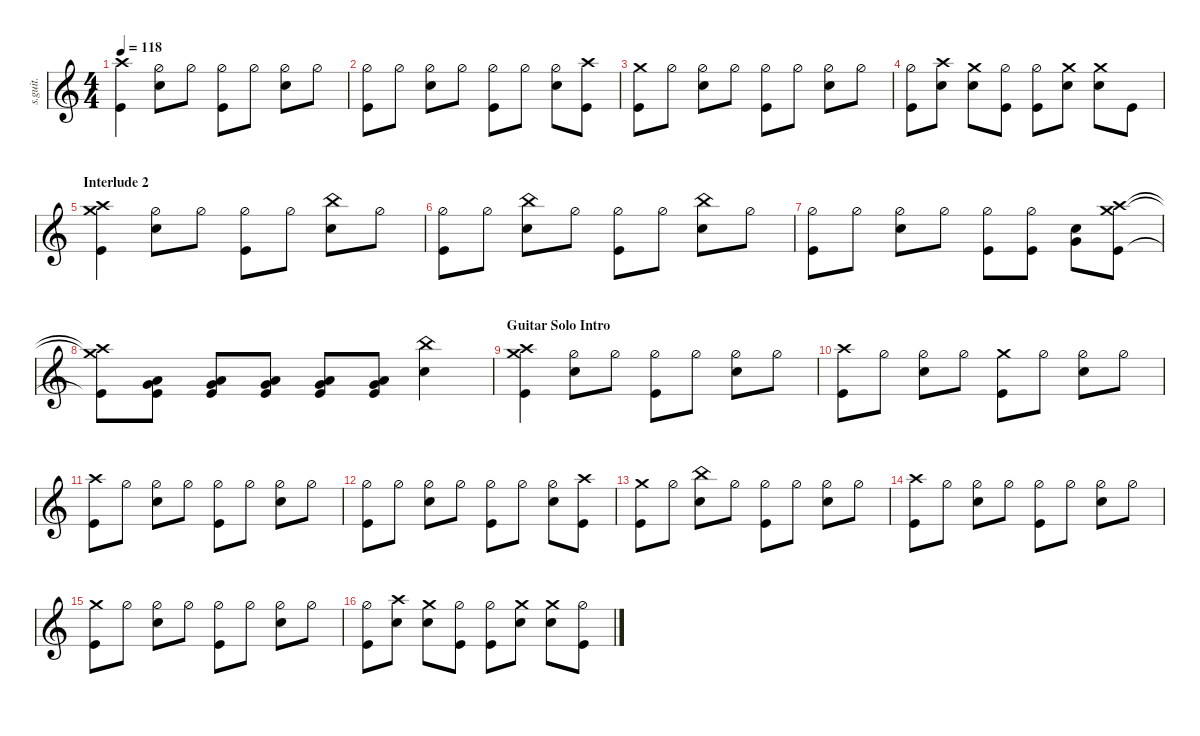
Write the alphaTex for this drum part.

\defaultSystemsLayout 4
\hideDynamics
\bracketExtendMode nobrackets
\track ("Drums [Arin Ilejay]" "s.guit.") {instrument percussion}
\staff {score}
\articulation defaults
\ts (4 4)
\tempo 118
\clef g2
\ks c
("Crash high (hit)" "Kick (hit)").4{lyrics (0 "") lyrics (1 "") lyrics (2 "") lyrics (3 "") lyrics (4 "") dy mp} ("Hi-Hat (half)" "Snare (hit) 2").8{lyrics (0 "") lyrics (1 "") lyrics (2 "") lyrics (3 "") lyrics (4 "")} "Hi-Hat (half)".8{lyrics (0 "") lyrics (1 "") lyrics (2 "") lyrics (3 "") lyrics (4 "")} ("Hi-Hat (half)" "Kick (hit)").8{lyrics (0 "") lyrics (1 "") lyrics (2 "") lyrics (3 "") lyrics (4 "")} "Hi-Hat (half)".8{lyrics (0 "") lyrics (1 "") lyrics (2 "") lyrics (3 "") lyrics (4 "")} ("Hi-Hat (half)" "Snare (hit) 2").8{lyrics (0 "") lyrics (1 "") lyrics (2 "") lyrics (3 "") lyrics (4 "")} "Hi-Hat (half)".8{lyrics (0 "") lyrics (1 "") lyrics (2 "") lyrics (3 "") lyrics (4 "")} |
("Hi-Hat (half)" "Kick (hit)").8{lyrics (0 "") lyrics (1 "") lyrics (2 "") lyrics (3 "") lyrics (4 "")} "Hi-Hat (half)".8{lyrics (0 "") lyrics (1 "") lyrics (2 "") lyrics (3 "") lyrics (4 "")} ("Hi-Hat (half)" "Snare (hit) 2").8{lyrics (0 "") lyrics (1 "") lyrics (2 "") lyrics (3 "") lyrics (4 "")} "Hi-Hat (half)".8{lyrics (0 "") lyrics (1 "") lyrics (2 "") lyrics (3 "") lyrics (4 "")} ("Hi-Hat (half)" "Kick (hit)").8{lyrics (0 "") lyrics (1 "") lyrics (2 "") lyrics (3 "") lyrics (4 "")} "Hi-Hat (half)".8{lyrics (0 "") lyrics (1 "") lyrics (2 "") lyrics (3 "") lyrics (4 "")} ("Hi-Hat (half)" "Snare (hit) 2").8{lyrics (0 "") lyrics (1 "") lyrics (2 "") lyrics (3 "") lyrics (4 "")} ("Crash high (hit)" "Kick (hit)").8{lyrics (0 "") lyrics (1 "") lyrics (2 "") lyrics (3 "") lyrics (4 "")} |
("Crash medium (hit)" "Kick (hit)").8{lyrics (0 "") lyrics (1 "") lyrics (2 "") lyrics (3 "") lyrics (4 "")} "Hi-Hat (half)".8{lyrics (0 "") lyrics (1 "") lyrics (2 "") lyrics (3 "") lyrics (4 "")} ("Hi-Hat (half)" "Snare (hit) 2").8{lyrics (0 "") lyrics (1 "") lyrics (2 "") lyrics (3 "") lyrics (4 "")} "Hi-Hat (half)".8{lyrics (0 "") lyrics (1 "") lyrics (2 "") lyrics (3 "") lyrics (4 "")} ("Hi-Hat (half)" "Kick (hit)").8{lyrics (0 "") lyrics (1 "") lyrics (2 "") lyrics (3 "") lyrics (4 "")} "Hi-Hat (half)".8{lyrics (0 "") lyrics (1 "") lyrics (2 "") lyrics (3 "") lyrics (4 "")} ("Hi-Hat (half)" "Snare (hit) 2").8{lyrics (0 "") lyrics (1 "") lyrics (2 "") lyrics (3 "") lyrics (4 "")} "Hi-Hat (half)".8{lyrics (0 "") lyrics (1 "") lyrics (2 "") lyrics (3 "") lyrics (4 "")} |
("Hi-Hat (half)" "Kick (hit)").8{lyrics (0 "") lyrics (1 "") lyrics (2 "") lyrics (3 "") lyrics (4 "")} ("Crash high (hit)" "Snare (hit) 2").8{lyrics (0 "") lyrics (1 "") lyrics (2 "") lyrics (3 "") lyrics (4 "")} ("Crash medium (hit)" "Snare (hit) 2").8{lyrics (0 "") lyrics (1 "") lyrics (2 "") lyrics (3 "") lyrics (4 "")} ("Hi-Hat (half)" "Kick (hit)").8{lyrics (0 "") lyrics (1 "") lyrics (2 "") lyrics (3 "") lyrics (4 "")} ("Hi-Hat (half)" "Kick (hit)").8{lyrics (0 "") lyrics (1 "") lyrics (2 "") lyrics (3 "") lyrics (4 "")} ("Crash medium (hit)" "Snare (hit) 2").8{lyrics (0 "") lyrics (1 "") lyrics (2 "") lyrics (3 "") lyrics (4 "")} ("Crash medium (hit)" "Snare (hit) 2").8{lyrics (0 "") lyrics (1 "") lyrics (2 "") lyrics (3 "") lyrics (4 "")} "Kick (hit)".8{lyrics (0 "") lyrics (1 "") lyrics (2 "") lyrics (3 "") lyrics (4 "")} |
\section ("" "Interlude 2")
("Crash high (hit)" "Crash medium (hit)" "Kick (hit)").4{lyrics (0 "") lyrics (1 "") lyrics (2 "") lyrics (3 "") lyrics (4 "")} ("Hi-Hat (half)" "Snare (hit) 2").8{lyrics (0 "") lyrics (1 "") lyrics (2 "") lyrics (3 "") lyrics (4 "")} "Hi-Hat (half)".8{lyrics (0 "") lyrics (1 "") lyrics (2 "") lyrics (3 "") lyrics (4 "")} ("Hi-Hat (half)" "Kick (hit)").8{lyrics (0 "") lyrics (1 "") lyrics (2 "") lyrics (3 "") lyrics (4 "")} "Hi-Hat (half)".8{lyrics (0 "") lyrics (1 "") lyrics (2 "") lyrics (3 "") lyrics (4 "")} ("China (hit)" "Snare (hit) 2").8{lyrics (0 "") lyrics (1 "") lyrics (2 "") lyrics (3 "") lyrics (4 "")} "Hi-Hat (half)".8{lyrics (0 "") lyrics (1 "") lyrics (2 "") lyrics (3 "") lyrics (4 "")} |
("Hi-Hat (half)" "Kick (hit)").8{lyrics (0 "") lyrics (1 "") lyrics (2 "") lyrics (3 "") lyrics (4 "")} "Hi-Hat (half)".8{lyrics (0 "") lyrics (1 "") lyrics (2 "") lyrics (3 "") lyrics (4 "")} ("China (hit)" "Snare (hit) 2").8{lyrics (0 "") lyrics (1 "") lyrics (2 "") lyrics (3 "") lyrics (4 "")} "Hi-Hat (half)".8{lyrics (0 "") lyrics (1 "") lyrics (2 "") lyrics (3 "") lyrics (4 "")} ("Hi-Hat (half)" "Kick (hit)").8{lyrics (0 "") lyrics (1 "") lyrics (2 "") lyrics (3 "") lyrics (4 "")} "Hi-Hat (half)".8{lyrics (0 "") lyrics (1 "") lyrics (2 "") lyrics (3 "") lyrics (4 "")} ("China (hit)" "Snare (hit) 2").8{lyrics (0 "") lyrics (1 "") lyrics (2 "") lyrics (3 "") lyrics (4 "")} "Hi-Hat (half)".8{lyrics (0 "") lyrics (1 "") lyrics (2 "") lyrics (3 "") lyrics (4 "")} |
("Hi-Hat (half)" "Kick (hit)").8{lyrics (0 "") lyrics (1 "") lyrics (2 "") lyrics (3 "") lyrics (4 "")} "Hi-Hat (half)".8{lyrics (0 "") lyrics (1 "") lyrics (2 "") lyrics (3 "") lyrics (4 "")} ("Hi-Hat (half)" "Snare (hit) 2").8{lyrics (0 "") lyrics (1 "") lyrics (2 "") lyrics (3 "") lyrics (4 "")} "Hi-Hat (half)".8{lyrics (0 "") lyrics (1 "") lyrics (2 "") lyrics (3 "") lyrics (4 "")} ("Hi-Hat (half)" "Kick (hit)").8{lyrics (0 "") lyrics (1 "") lyrics (2 "") lyrics (3 "") lyrics (4 "")} ("Hi-Hat (half)" "Kick (hit)").8{lyrics (0 "") lyrics (1 "") lyrics (2 "") lyrics (3 "") lyrics (4 "")} ("Snare (hit) 2" "Very Low Tom (hit)").8{lyrics (0 "") lyrics (1 "") lyrics (2 "") lyrics (3 "") lyrics (4 "")} ("Crash high (hit)" "Crash medium (hit)" "Kick (hit)").8{lyrics (0 "") lyrics (1 "") lyrics (2 "") lyrics (3 "") lyrics (4 "")} |
("Crash high (hit)"{t} "Crash medium (hit)"{t} "Kick (hit)"{t}).8{lyrics (0 "") lyrics (1 "") lyrics (2 "") lyrics (3 "") lyrics (4 "")} ("Low Tom (hit)" "Very Low Tom (hit)" "Kick (hit)").8{lyrics (0 "") lyrics (1 "") lyrics (2 "") lyrics (3 "") lyrics (4 "")} ("Low Tom (hit)" "Very Low Tom (hit)" "Kick (hit)").8{lyrics (0 "") lyrics (1 "") lyrics (2 "") lyrics (3 "") lyrics (4 "")} ("Low Tom (hit)" "Very Low Tom (hit)" "Kick (hit)").8{lyrics (0 "") lyrics (1 "") lyrics (2 "") lyrics (3 "") lyrics (4 "")} ("Low Tom (hit)" "Very Low Tom (hit)" "Kick (hit)").8{lyrics (0 "") lyrics (1 "") lyrics (2 "") lyrics (3 "") lyrics (4 "")} ("Low Tom (hit)" "Very Low Tom (hit)" "Kick (hit)").8{lyrics (0 "") lyrics (1 "") lyrics (2 "") lyrics (3 "") lyrics (4 "")} ("China (hit)" "Snare (hit) 2").4{lyrics (0 "") lyrics (1 "") lyrics (2 "") lyrics (3 "") lyrics (4 "")} |
\section ("" "Guitar Solo Intro")
("Crash high (hit)" "Crash medium (hit)" "Kick (hit)").4{lyrics (0 "") lyrics (1 "") lyrics (2 "") lyrics (3 "") lyrics (4 "")} ("Hi-Hat (half)" "Snare (hit) 2").8{lyrics (0 "") lyrics (1 "") lyrics (2 "") lyrics (3 "") lyrics (4 "")} "Hi-Hat (half)".8{lyrics (0 "") lyrics (1 "") lyrics (2 "") lyrics (3 "") lyrics (4 "")} ("Hi-Hat (half)" "Kick (hit)").8{lyrics (0 "") lyrics (1 "") lyrics (2 "") lyrics (3 "") lyrics (4 "")} "Hi-Hat (half)".8{lyrics (0 "") lyrics (1 "") lyrics (2 "") lyrics (3 "") lyrics (4 "")} ("Hi-Hat (half)" "Snare (hit) 2").8{lyrics (0 "") lyrics (1 "") lyrics (2 "") lyrics (3 "") lyrics (4 "")} "Hi-Hat (half)".8{lyrics (0 "") lyrics (1 "") lyrics (2 "") lyrics (3 "") lyrics (4 "")} |
("Crash high (hit)" "Kick (hit)").8{lyrics (0 "") lyrics (1 "") lyrics (2 "") lyrics (3 "") lyrics (4 "")} "Hi-Hat (half)".8{lyrics (0 "") lyrics (1 "") lyrics (2 "") lyrics (3 "") lyrics (4 "")} ("Hi-Hat (half)" "Snare (hit) 2").8{lyrics (0 "") lyrics (1 "") lyrics (2 "") lyrics (3 "") lyrics (4 "")} "Hi-Hat (half)".8{lyrics (0 "") lyrics (1 "") lyrics (2 "") lyrics (3 "") lyrics (4 "")} ("Crash medium (hit)" "Kick (hit)").8{lyrics (0 "") lyrics (1 "") lyrics (2 "") lyrics (3 "") lyrics (4 "")} "Hi-Hat (half)".8{lyrics (0 "") lyrics (1 "") lyrics (2 "") lyrics (3 "") lyrics (4 "")} ("Hi-Hat (half)" "Snare (hit) 2").8{lyrics (0 "") lyrics (1 "") lyrics (2 "") lyrics (3 "") lyrics (4 "")} "Hi-Hat (half)".8{lyrics (0 "") lyrics (1 "") lyrics (2 "") lyrics (3 "") lyrics (4 "")} |
("Crash high (hit)" "Kick (hit)").8{lyrics (0 "") lyrics (1 "") lyrics (2 "") lyrics (3 "") lyrics (4 "")} "Hi-Hat (half)".8{lyrics (0 "") lyrics (1 "") lyrics (2 "") lyrics (3 "") lyrics (4 "")} ("Hi-Hat (half)" "Snare (hit) 2").8{lyrics (0 "") lyrics (1 "") lyrics (2 "") lyrics (3 "") lyrics (4 "")} "Hi-Hat (half)".8{lyrics (0 "") lyrics (1 "") lyrics (2 "") lyrics (3 "") lyrics (4 "")} ("Hi-Hat (half)" "Kick (hit)").8{lyrics (0 "") lyrics (1 "") lyrics (2 "") lyrics (3 "") lyrics (4 "")} "Hi-Hat (half)".8{lyrics (0 "") lyrics (1 "") lyrics (2 "") lyrics (3 "") lyrics (4 "")} ("Hi-Hat (half)" "Snare (hit) 2").8{lyrics (0 "") lyrics (1 "") lyrics (2 "") lyrics (3 "") lyrics (4 "")} "Hi-Hat (half)".8{lyrics (0 "") lyrics (1 "") lyrics (2 "") lyrics (3 "") lyrics (4 "")} |
("Hi-Hat (half)" "Kick (hit)").8{lyrics (0 "") lyrics (1 "") lyrics (2 "") lyrics (3 "") lyrics (4 "")} "Hi-Hat (half)".8{lyrics (0 "") lyrics (1 "") lyrics (2 "") lyrics (3 "") lyrics (4 "")} ("Hi-Hat (half)" "Snare (hit) 2").8{lyrics (0 "") lyrics (1 "") lyrics (2 "") lyrics (3 "") lyrics (4 "")} "Hi-Hat (half)".8{lyrics (0 "") lyrics (1 "") lyrics (2 "") lyrics (3 "") lyrics (4 "")} ("Hi-Hat (half)" "Kick (hit)").8{lyrics (0 "") lyrics (1 "") lyrics (2 "") lyrics (3 "") lyrics (4 "")} "Hi-Hat (half)".8{lyrics (0 "") lyrics (1 "") lyrics (2 "") lyrics (3 "") lyrics (4 "")} ("Hi-Hat (half)" "Snare (hit) 2").8{lyrics (0 "") lyrics (1 "") lyrics (2 "") lyrics (3 "") lyrics (4 "")} ("Crash high (hit)" "Kick (hit)").8{lyrics (0 "") lyrics (1 "") lyrics (2 "") lyrics (3 "") lyrics (4 "")} |
("Crash medium (hit)" "Kick (hit)").8{lyrics (0 "") lyrics (1 "") lyrics (2 "") lyrics (3 "") lyrics (4 "")} "Hi-Hat (half)".8{lyrics (0 "") lyrics (1 "") lyrics (2 "") lyrics (3 "") lyrics (4 "")} ("China (hit)" "Snare (hit) 2").8{lyrics (0 "") lyrics (1 "") lyrics (2 "") lyrics (3 "") lyrics (4 "")} "Hi-Hat (half)".8{lyrics (0 "") lyrics (1 "") lyrics (2 "") lyrics (3 "") lyrics (4 "")} ("Hi-Hat (half)" "Kick (hit)").8{lyrics (0 "") lyrics (1 "") lyrics (2 "") lyrics (3 "") lyrics (4 "")} "Hi-Hat (half)".8{lyrics (0 "") lyrics (1 "") lyrics (2 "") lyrics (3 "") lyrics (4 "")} ("Hi-Hat (half)" "Snare (hit) 2").8{lyrics (0 "") lyrics (1 "") lyrics (2 "") lyrics (3 "") lyrics (4 "")} "Hi-Hat (half)".8{lyrics (0 "") lyrics (1 "") lyrics (2 "") lyrics (3 "") lyrics (4 "")} |
("Crash high (hit)" "Kick (hit)").8{lyrics (0 "") lyrics (1 "") lyrics (2 "") lyrics (3 "") lyrics (4 "")} "Hi-Hat (half)".8{lyrics (0 "") lyrics (1 "") lyrics (2 "") lyrics (3 "") lyrics (4 "")} ("Hi-Hat (half)" "Snare (hit) 2").8{lyrics (0 "") lyrics (1 "") lyrics (2 "") lyrics (3 "") lyrics (4 "")} "Hi-Hat (half)".8{lyrics (0 "") lyrics (1 "") lyrics (2 "") lyrics (3 "") lyrics (4 "")} ("Hi-Hat (half)" "Kick (hit)").8{lyrics (0 "") lyrics (1 "") lyrics (2 "") lyrics (3 "") lyrics (4 "")} "Hi-Hat (half)".8{lyrics (0 "") lyrics (1 "") lyrics (2 "") lyrics (3 "") lyrics (4 "")} ("Hi-Hat (half)" "Snare (hit) 2").8{lyrics (0 "") lyrics (1 "") lyrics (2 "") lyrics (3 "") lyrics (4 "")} "Hi-Hat (half)".8{lyrics (0 "") lyrics (1 "") lyrics (2 "") lyrics (3 "") lyrics (4 "")} |
("Crash medium (hit)" "Kick (hit)").8{lyrics (0 "") lyrics (1 "") lyrics (2 "") lyrics (3 "") lyrics (4 "")} "Hi-Hat (half)".8{lyrics (0 "") lyrics (1 "") lyrics (2 "") lyrics (3 "") lyrics (4 "")} ("Hi-Hat (half)" "Snare (hit) 2").8{lyrics (0 "") lyrics (1 "") lyrics (2 "") lyrics (3 "") lyrics (4 "")} "Hi-Hat (half)".8{lyrics (0 "") lyrics (1 "") lyrics (2 "") lyrics (3 "") lyrics (4 "")} ("Hi-Hat (half)" "Kick (hit)").8{lyrics (0 "") lyrics (1 "") lyrics (2 "") lyrics (3 "") lyrics (4 "")} "Hi-Hat (half)".8{lyrics (0 "") lyrics (1 "") lyrics (2 "") lyrics (3 "") lyrics (4 "")} ("Hi-Hat (half)" "Snare (hit) 2").8{lyrics (0 "") lyrics (1 "") lyrics (2 "") lyrics (3 "") lyrics (4 "")} "Hi-Hat (half)".8{lyrics (0 "") lyrics (1 "") lyrics (2 "") lyrics (3 "") lyrics (4 "")} |
("Hi-Hat (half)" "Kick (hit)").8{lyrics (0 "") lyrics (1 "") lyrics (2 "") lyrics (3 "") lyrics (4 "")} ("Crash high (hit)" "Snare (hit) 2").8{lyrics (0 "") lyrics (1 "") lyrics (2 "") lyrics (3 "") lyrics (4 "")} ("Crash medium (hit)" "Snare (hit) 2").8{lyrics (0 "") lyrics (1 "") lyrics (2 "") lyrics (3 "") lyrics (4 "")} ("Hi-Hat (half)" "Kick (hit)").8{lyrics (0 "") lyrics (1 "") lyrics (2 "") lyrics (3 "") lyrics (4 "")} ("Hi-Hat (half)" "Kick (hit)").8{lyrics (0 "") lyrics (1 "") lyrics (2 "") lyrics (3 "") lyrics (4 "")} ("Crash medium (hit)" "Snare (hit) 2").8{lyrics (0 "") lyrics (1 "") lyrics (2 "") lyrics (3 "") lyrics (4 "")} ("Crash medium (hit)" "Snare (hit) 2").8{lyrics (0 "") lyrics (1 "") lyrics (2 "") lyrics (3 "") lyrics (4 "")} ("Hi-Hat (half)" "Kick (hit)").8{lyrics (0 "") lyrics (1 "") lyrics (2 "") lyrics (3 "") lyrics (4 "")}
